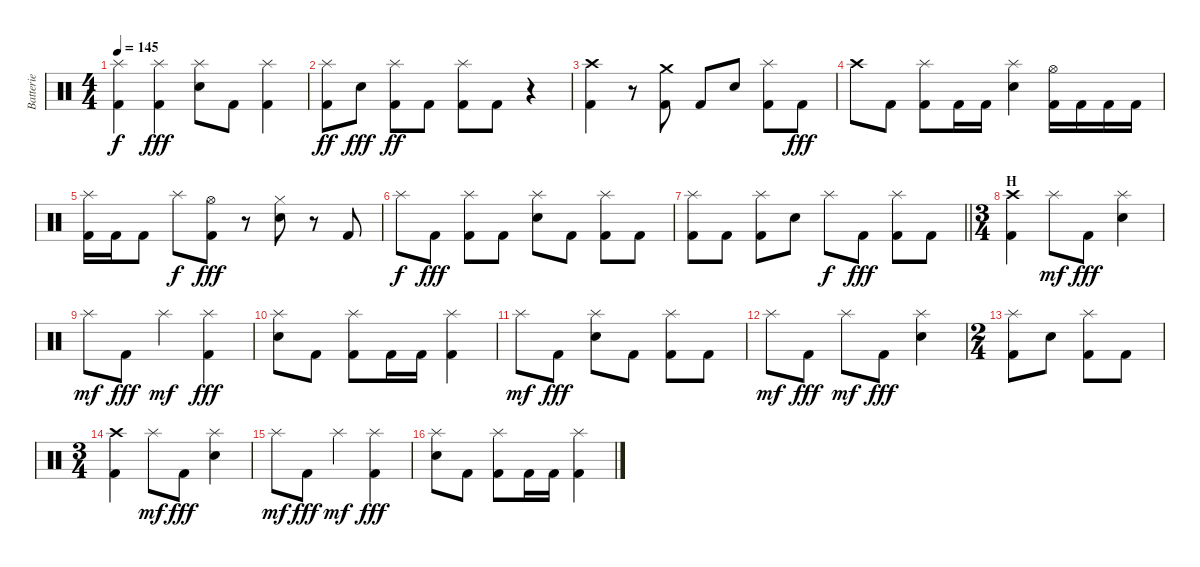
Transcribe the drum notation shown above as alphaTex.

\track ("Batterie" "Batterie") {instrument percussion}
\staff {score}
\articulation defaults
\ts (4 4)
\tempo 145
\clef neutral
\ks c
("Splash (hit)" "Kick (hit) 2").4{dy f} ("Splash (hit)" "Kick (hit) 2").4{dy fff} ("Splash (hit)" "Electric Snare (hit)").8 "Kick (hit) 2".8 ("Splash (hit)" "Kick (hit) 2").4 |
("Splash (hit)" "Kick (hit) 2").8{dy ff} "Electric Snare (hit)".8{dy fff} ("Splash (hit)" "Kick (hit) 2").8{dy ff} "Kick (hit) 2".8 ("Splash (hit)" "Kick (hit) 2").8 "Kick (hit) 2".8 r.4 |
("Crash high (hit)" "Kick (hit) 2").4 r.8 ("Crash medium (hit)" "Kick (hit) 2").8 "Kick (hit) 2".8 "Electric Snare (hit)".8 ("Splash (hit)" "Kick (hit) 2").8 "Kick (hit) 2".8{dy fff} |
"Crash high (hit)".8 "Kick (hit) 2".8 ("Splash (hit)" "Kick (hit) 2").8 "Kick (hit) 2".16 "Kick (hit) 2".16 ("Splash (hit)" "Electric Snare (hit)").4 ("Hi-Hat (open)" "Kick (hit) 2").16 "Kick (hit) 2".16 "Kick (hit) 2".16 "Kick (hit) 2".16 |
("Splash (hit)" "Kick (hit) 2").16 "Kick (hit) 2".16 "Kick (hit) 2".8 "Splash (hit)".8{dy f} ("Hi-Hat (open)" "Kick (hit) 2").8{dy fff} r.8 ("Hi-Hat (closed)" "Electric Snare (hit)").8 r.8 "Kick (hit) 2".8 |
"Splash (hit)".8{dy f} "Kick (hit) 2".8{dy fff} ("Splash (hit)" "Kick (hit) 2").8 "Kick (hit) 2".8 ("Splash (hit)" "Electric Snare (hit)").8 "Kick (hit) 2".8 ("Splash (hit)" "Kick (hit) 2").8 "Kick (hit) 2".8 |
\barLineRight lightlight
("Splash (hit)" "Kick (hit) 2").8 "Kick (hit) 2".8 ("Splash (hit)" "Kick (hit) 2").8 "Electric Snare (hit)".8 "Splash (hit)".8{dy f} "Kick (hit) 2".8{dy fff} ("Splash (hit)" "Kick (hit) 2").8 "Kick (hit) 2".8 |
\ts (3 4)
\section ("" "H")
("Crash high (hit)" "Kick (hit) 2").4 "Splash (hit)".8{dy mf} "Kick (hit) 2".8{dy fff} ("Splash (hit)" "Electric Snare (hit)").4 |
"Splash (hit)".8{dy mf} "Kick (hit) 2".8{dy fff} "Splash (hit)".4{dy mf} ("Splash (hit)" "Kick (hit) 2").4{dy fff} |
("Splash (hit)" "Electric Snare (hit)").8 "Kick (hit) 2".8 ("Splash (hit)" "Kick (hit) 2").8 "Kick (hit) 2".16 "Kick (hit) 2".16 ("Splash (hit)" "Kick (hit) 2").4 |
"Splash (hit)".8{dy mf} "Kick (hit) 2".8{dy fff} ("Splash (hit)" "Electric Snare (hit)").8 "Kick (hit) 2".8 ("Splash (hit)" "Kick (hit) 2").8 "Kick (hit) 2".8 |
"Splash (hit)".8{dy mf} "Kick (hit) 2".8{dy fff} "Splash (hit)".8{dy mf} "Kick (hit) 2".8{dy fff} ("Splash (hit)" "Electric Snare (hit)").4 |
\ts (2 4)
("Splash (hit)" "Kick (hit) 2").8 "Electric Snare (hit)".8 ("Splash (hit)" "Kick (hit) 2").8 "Kick (hit) 2".8 |
\ts (3 4)
("Crash high (hit)" "Kick (hit) 2").4 "Splash (hit)".8{dy mf} "Kick (hit) 2".8{dy fff} ("Splash (hit)" "Electric Snare (hit)").4 |
"Splash (hit)".8{dy mf} "Kick (hit) 2".8{dy fff} "Splash (hit)".4{dy mf} ("Splash (hit)" "Kick (hit) 2").4{dy fff} |
("Splash (hit)" "Electric Snare (hit)").8 "Kick (hit) 2".8 ("Splash (hit)" "Kick (hit) 2").8 "Kick (hit) 2".16 "Kick (hit) 2".16 ("Splash (hit)" "Kick (hit) 2").4
